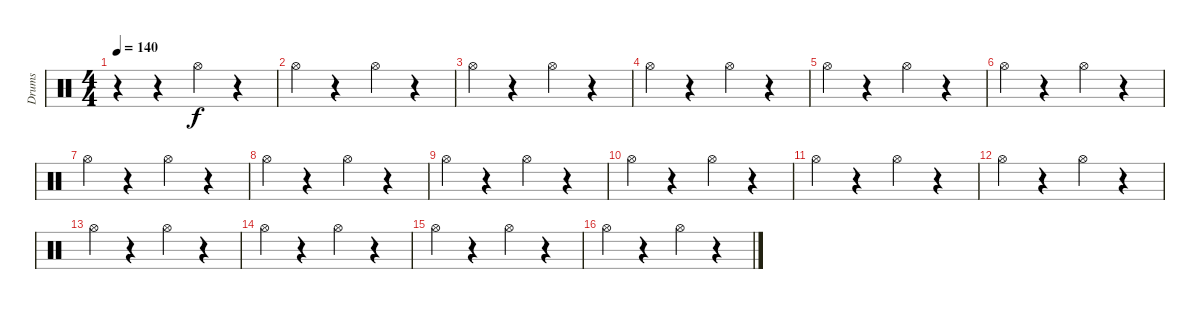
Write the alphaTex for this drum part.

\track ("Drums" "Drums") {instrument percussion}
\staff {score}
\articulation defaults
\ts (4 4)
\tempo 140
\clef neutral
\ks c
r.4{dy f} r.4 "Hi-Hat (open)".4 r.4 |
"Hi-Hat (open)".4 r.4 "Hi-Hat (open)".4 r.4 |
"Hi-Hat (open)".4 r.4 "Hi-Hat (open)".4 r.4 |
"Hi-Hat (open)".4 r.4 "Hi-Hat (open)".4 r.4 |
"Hi-Hat (open)".4 r.4 "Hi-Hat (open)".4 r.4 |
"Hi-Hat (open)".4 r.4 "Hi-Hat (open)".4 r.4 |
"Hi-Hat (open)".4 r.4 "Hi-Hat (open)".4 r.4 |
"Hi-Hat (open)".4 r.4 "Hi-Hat (open)".4 r.4 |
"Hi-Hat (open)".4 r.4 "Hi-Hat (open)".4 r.4 |
"Hi-Hat (open)".4 r.4 "Hi-Hat (open)".4 r.4 |
"Hi-Hat (open)".4 r.4 "Hi-Hat (open)".4 r.4 |
"Hi-Hat (open)".4 r.4 "Hi-Hat (open)".4 r.4 |
"Hi-Hat (open)".4 r.4 "Hi-Hat (open)".4 r.4 |
"Hi-Hat (open)".4 r.4 "Hi-Hat (open)".4 r.4 |
"Hi-Hat (open)".4 r.4 "Hi-Hat (open)".4 r.4 |
"Hi-Hat (open)".4 r.4 "Hi-Hat (open)".4 r.4
